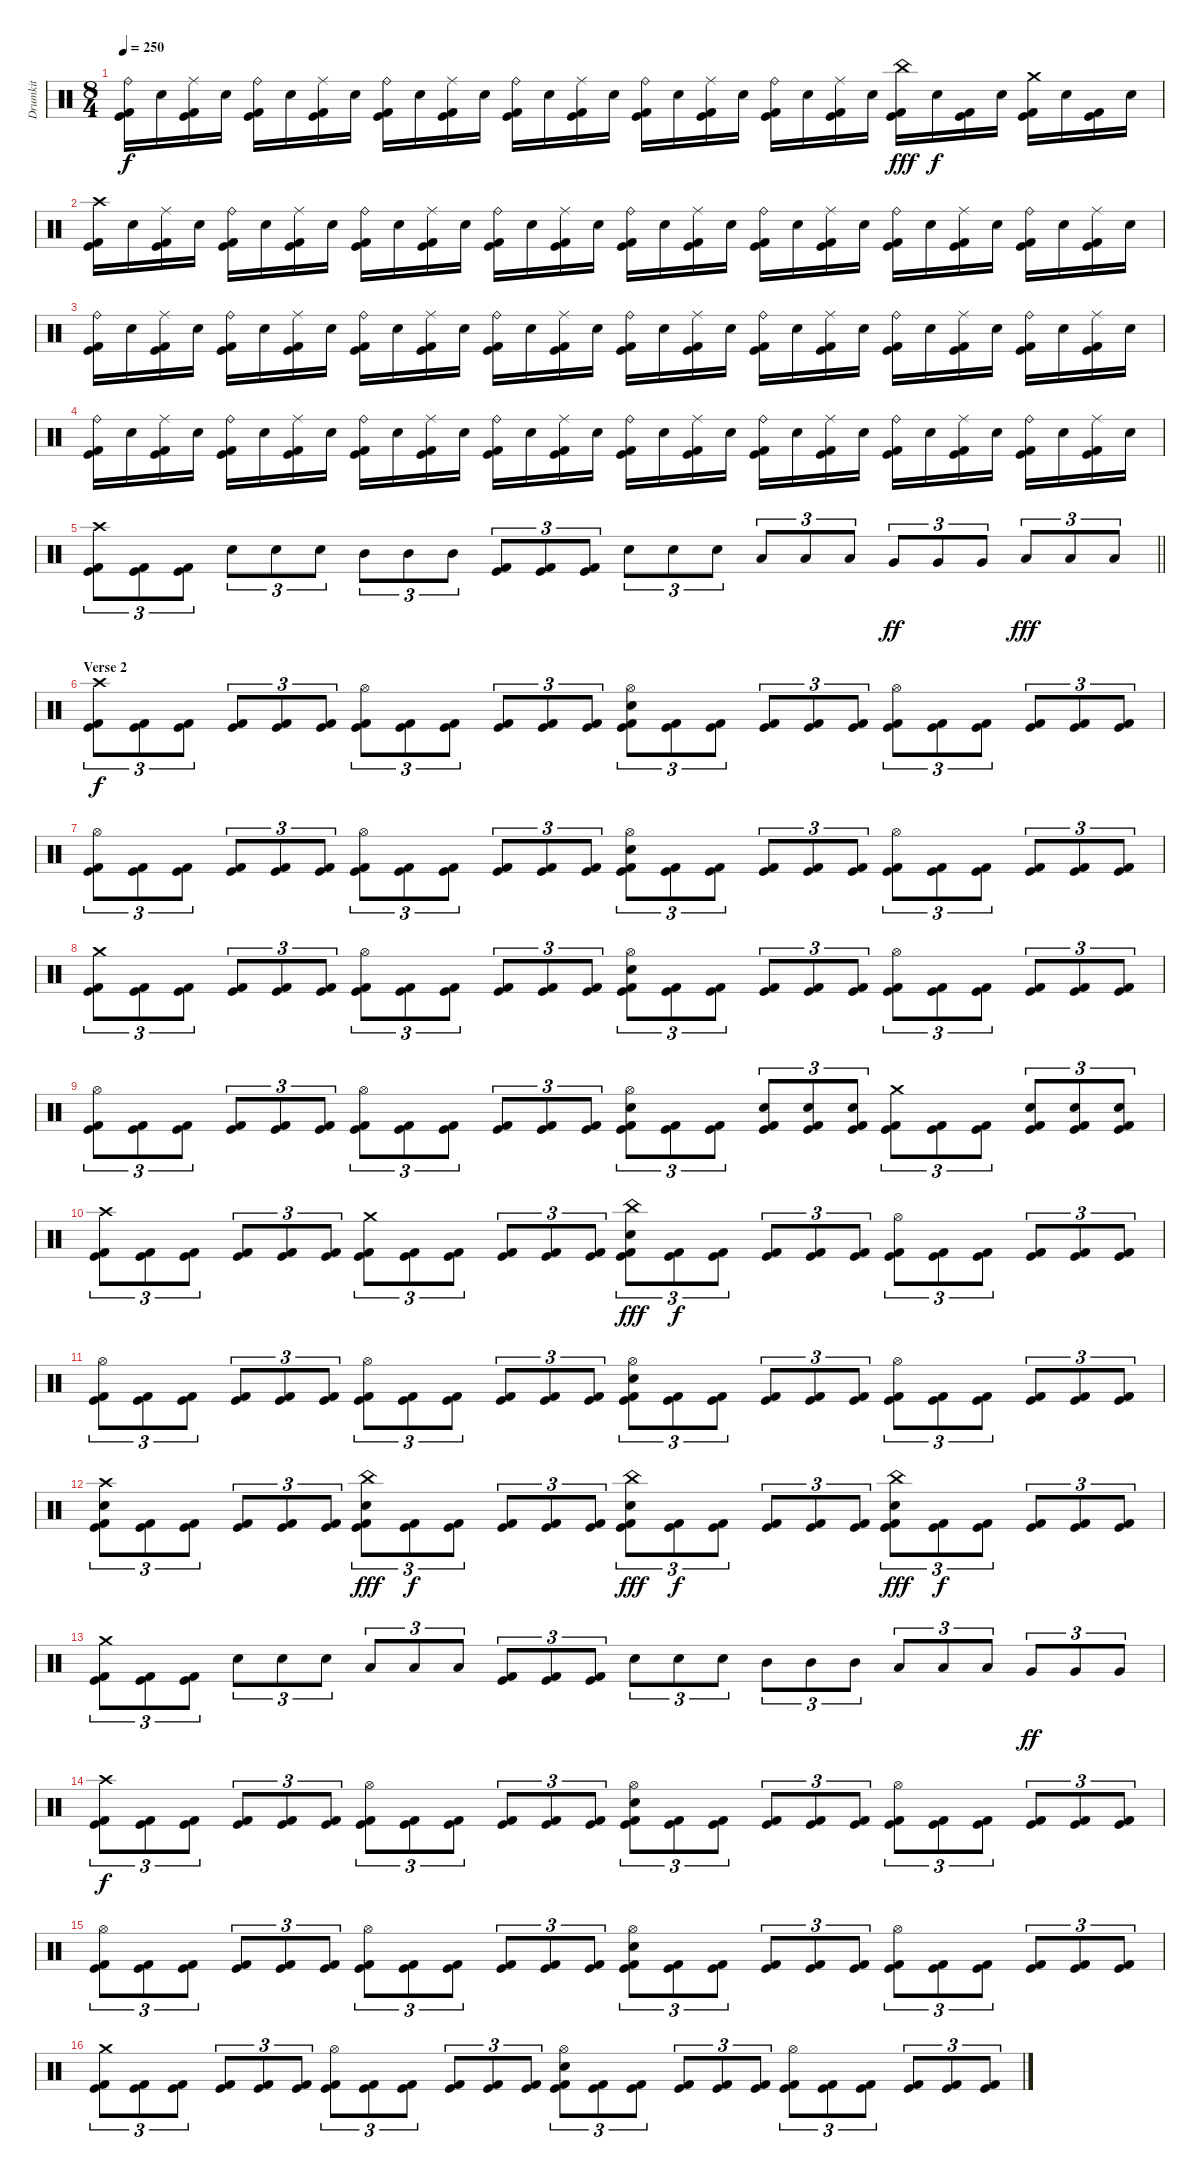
\track ("Drumkit" "Drumkit") {instrument percussion}
\staff {score}
\articulation defaults
\ts (8 4)
\tempo 250
\clef neutral
\ks c
("Ride (bell)" "Kick (hit)" "Kick (hit) 2").16{dy f} "Electric Snare (hit)".16 ("Ride (middle)" "Kick (hit)" "Kick (hit) 2").16 "Electric Snare (hit)".16 ("Ride (bell)" "Kick (hit)" "Kick (hit) 2").16 "Electric Snare (hit)".16 ("Ride (middle)" "Kick (hit)" "Kick (hit) 2").16 "Electric Snare (hit)".16 ("Ride (bell)" "Kick (hit)" "Kick (hit) 2").16 "Electric Snare (hit)".16 ("Ride (middle)" "Kick (hit)" "Kick (hit) 2").16 "Electric Snare (hit)".16 ("Ride (bell)" "Kick (hit)" "Kick (hit) 2").16 "Electric Snare (hit)".16 ("Ride (middle)" "Kick (hit)" "Kick (hit) 2").16 "Electric Snare (hit)".16 ("Ride (bell)" "Kick (hit)" "Kick (hit) 2").16 "Electric Snare (hit)".16 ("Ride (middle)" "Kick (hit)" "Kick (hit) 2").16 "Electric Snare (hit)".16 ("Ride (bell)" "Kick (hit)" "Kick (hit) 2").16 "Electric Snare (hit)".16 ("Ride (middle)" "Kick (hit)" "Kick (hit) 2").16 "Electric Snare (hit)".16 ("China (hit)" "Kick (hit)" "Kick (hit) 2").16{dy fff} "Electric Snare (hit)".16{dy f} ("Kick (hit)" "Kick (hit) 2").16 "Electric Snare (hit)".16 ("Crash medium (hit)" "Kick (hit)" "Kick (hit) 2").16 "Electric Snare (hit)".16 ("Kick (hit)" "Kick (hit) 2").16 "Electric Snare (hit)".16 |
("Crash high (hit)" "Kick (hit)" "Kick (hit) 2").16 "Electric Snare (hit)".16 ("Ride (middle)" "Kick (hit)" "Kick (hit) 2").16 "Electric Snare (hit)".16 ("Ride (bell)" "Kick (hit)" "Kick (hit) 2").16 "Electric Snare (hit)".16 ("Ride (middle)" "Kick (hit)" "Kick (hit) 2").16 "Electric Snare (hit)".16 ("Ride (bell)" "Kick (hit)" "Kick (hit) 2").16 "Electric Snare (hit)".16 ("Ride (middle)" "Kick (hit)" "Kick (hit) 2").16 "Electric Snare (hit)".16 ("Ride (bell)" "Kick (hit)" "Kick (hit) 2").16 "Electric Snare (hit)".16 ("Ride (middle)" "Kick (hit)" "Kick (hit) 2").16 "Electric Snare (hit)".16 ("Ride (bell)" "Kick (hit)" "Kick (hit) 2").16 "Electric Snare (hit)".16 ("Ride (middle)" "Kick (hit)" "Kick (hit) 2").16 "Electric Snare (hit)".16 ("Ride (bell)" "Kick (hit)" "Kick (hit) 2").16 "Electric Snare (hit)".16 ("Ride (middle)" "Kick (hit)" "Kick (hit) 2").16 "Electric Snare (hit)".16 ("Ride (bell)" "Kick (hit)" "Kick (hit) 2").16 "Electric Snare (hit)".16 ("Ride (middle)" "Kick (hit)" "Kick (hit) 2").16 "Electric Snare (hit)".16 ("Ride (bell)" "Kick (hit)" "Kick (hit) 2").16 "Electric Snare (hit)".16 ("Ride (middle)" "Kick (hit)" "Kick (hit) 2").16 "Electric Snare (hit)".16 |
("Ride (bell)" "Kick (hit)" "Kick (hit) 2").16 "Electric Snare (hit)".16 ("Ride (middle)" "Kick (hit)" "Kick (hit) 2").16 "Electric Snare (hit)".16 ("Ride (bell)" "Kick (hit)" "Kick (hit) 2").16 "Electric Snare (hit)".16 ("Ride (middle)" "Kick (hit)" "Kick (hit) 2").16 "Electric Snare (hit)".16 ("Ride (bell)" "Kick (hit)" "Kick (hit) 2").16 "Electric Snare (hit)".16 ("Ride (middle)" "Kick (hit)" "Kick (hit) 2").16 "Electric Snare (hit)".16 ("Ride (bell)" "Kick (hit)" "Kick (hit) 2").16 "Electric Snare (hit)".16 ("Ride (middle)" "Kick (hit)" "Kick (hit) 2").16 "Electric Snare (hit)".16 ("Ride (bell)" "Kick (hit)" "Kick (hit) 2").16 "Electric Snare (hit)".16 ("Ride (middle)" "Kick (hit)" "Kick (hit) 2").16 "Electric Snare (hit)".16 ("Ride (bell)" "Kick (hit)" "Kick (hit) 2").16 "Electric Snare (hit)".16 ("Ride (middle)" "Kick (hit)" "Kick (hit) 2").16 "Electric Snare (hit)".16 ("Ride (bell)" "Kick (hit)" "Kick (hit) 2").16 "Electric Snare (hit)".16 ("Ride (middle)" "Kick (hit)" "Kick (hit) 2").16 "Electric Snare (hit)".16 ("Ride (bell)" "Kick (hit)" "Kick (hit) 2").16 "Electric Snare (hit)".16 ("Ride (middle)" "Kick (hit)" "Kick (hit) 2").16 "Electric Snare (hit)".16 |
("Ride (bell)" "Kick (hit)" "Kick (hit) 2").16 "Electric Snare (hit)".16 ("Ride (middle)" "Kick (hit)" "Kick (hit) 2").16 "Electric Snare (hit)".16 ("Ride (bell)" "Kick (hit)" "Kick (hit) 2").16 "Electric Snare (hit)".16 ("Ride (middle)" "Kick (hit)" "Kick (hit) 2").16 "Electric Snare (hit)".16 ("Ride (bell)" "Kick (hit)" "Kick (hit) 2").16 "Electric Snare (hit)".16 ("Ride (middle)" "Kick (hit)" "Kick (hit) 2").16 "Electric Snare (hit)".16 ("Ride (bell)" "Kick (hit)" "Kick (hit) 2").16 "Electric Snare (hit)".16 ("Ride (middle)" "Kick (hit)" "Kick (hit) 2").16 "Electric Snare (hit)".16 ("Ride (bell)" "Kick (hit)" "Kick (hit) 2").16 "Electric Snare (hit)".16 ("Ride (middle)" "Kick (hit)" "Kick (hit) 2").16 "Electric Snare (hit)".16 ("Ride (bell)" "Kick (hit)" "Kick (hit) 2").16 "Electric Snare (hit)".16 ("Ride (middle)" "Kick (hit)" "Kick (hit) 2").16 "Electric Snare (hit)".16 ("Ride (bell)" "Kick (hit)" "Kick (hit) 2").16 "Electric Snare (hit)".16 ("Ride (middle)" "Kick (hit)" "Kick (hit) 2").16 "Electric Snare (hit)".16 ("Ride (bell)" "Kick (hit)" "Kick (hit) 2").16 "Electric Snare (hit)".16 ("Ride (middle)" "Kick (hit)" "Kick (hit) 2").16 "Electric Snare (hit)".16 |
\barLineRight lightlight
("Crash high (hit)" "Kick (hit)" "Kick (hit) 2").8{tu (3 2)} ("Kick (hit)" "Kick (hit) 2").8{tu (3 2)} ("Kick (hit)" "Kick (hit) 2").8{tu (3 2)} "Electric Snare (hit)".8{tu (3 2)} "Electric Snare (hit)".8{tu (3 2)} "Electric Snare (hit)".8{tu (3 2)} "Mid Tom (hit)".8{tu (3 2)} "Mid Tom (hit)".8{tu (3 2)} "Mid Tom (hit)".8{tu (3 2)} ("Kick (hit)" "Kick (hit) 2").8{tu (3 2)} ("Kick (hit)" "Kick (hit) 2").8{tu (3 2)} ("Kick (hit)" "Kick (hit) 2").8{tu (3 2)} "Electric Snare (hit)".8{tu (3 2)} "Electric Snare (hit)".8{tu (3 2)} "Electric Snare (hit)".8{tu (3 2)} "Low Tom (hit)".8{tu (3 2)} "Low Tom (hit)".8{tu (3 2)} "Low Tom (hit)".8{tu (3 2)} "Very Low Tom (hit)".8{tu (3 2) dy ff} "Very Low Tom (hit)".8{tu (3 2)} "Very Low Tom (hit)".8{tu (3 2)} "Low Floor Tom (hit)".8{tu (3 2) dy fff} "Low Floor Tom (hit)".8{tu (3 2)} "Low Floor Tom (hit)".8{tu (3 2)} |
\section ("" "Verse 2")
("Crash high (hit)" "Kick (hit)" "Kick (hit) 2").8{tu (3 2) dy f} ("Kick (hit)" "Kick (hit) 2").8{tu (3 2)} ("Kick (hit)" "Kick (hit) 2").8{tu (3 2)} ("Kick (hit)" "Kick (hit) 2").8{tu (3 2)} ("Kick (hit)" "Kick (hit) 2").8{tu (3 2)} ("Kick (hit)" "Kick (hit) 2").8{tu (3 2)} ("Hi-Hat (open)" "Kick (hit)" "Kick (hit) 2").8{tu (3 2)} ("Kick (hit)" "Kick (hit) 2").8{tu (3 2)} ("Kick (hit)" "Kick (hit) 2").8{tu (3 2)} ("Kick (hit)" "Kick (hit) 2").8{tu (3 2)} ("Kick (hit)" "Kick (hit) 2").8{tu (3 2)} ("Kick (hit)" "Kick (hit) 2").8{tu (3 2)} ("Hi-Hat (open)" "Electric Snare (hit)" "Kick (hit)" "Kick (hit) 2").8{tu (3 2)} ("Kick (hit)" "Kick (hit) 2").8{tu (3 2)} ("Kick (hit)" "Kick (hit) 2").8{tu (3 2)} ("Kick (hit)" "Kick (hit) 2").8{tu (3 2)} ("Kick (hit)" "Kick (hit) 2").8{tu (3 2)} ("Kick (hit)" "Kick (hit) 2").8{tu (3 2)} ("Hi-Hat (open)" "Kick (hit)" "Kick (hit) 2").8{tu (3 2)} ("Kick (hit)" "Kick (hit) 2").8{tu (3 2)} ("Kick (hit)" "Kick (hit) 2").8{tu (3 2)} ("Kick (hit)" "Kick (hit) 2").8{tu (3 2)} ("Kick (hit)" "Kick (hit) 2").8{tu (3 2)} ("Kick (hit)" "Kick (hit) 2").8{tu (3 2)} |
("Hi-Hat (open)" "Kick (hit)" "Kick (hit) 2").8{tu (3 2)} ("Kick (hit)" "Kick (hit) 2").8{tu (3 2)} ("Kick (hit)" "Kick (hit) 2").8{tu (3 2)} ("Kick (hit)" "Kick (hit) 2").8{tu (3 2)} ("Kick (hit)" "Kick (hit) 2").8{tu (3 2)} ("Kick (hit)" "Kick (hit) 2").8{tu (3 2)} ("Hi-Hat (open)" "Kick (hit)" "Kick (hit) 2").8{tu (3 2)} ("Kick (hit)" "Kick (hit) 2").8{tu (3 2)} ("Kick (hit)" "Kick (hit) 2").8{tu (3 2)} ("Kick (hit)" "Kick (hit) 2").8{tu (3 2)} ("Kick (hit)" "Kick (hit) 2").8{tu (3 2)} ("Kick (hit)" "Kick (hit) 2").8{tu (3 2)} ("Hi-Hat (open)" "Electric Snare (hit)" "Kick (hit)" "Kick (hit) 2").8{tu (3 2)} ("Kick (hit)" "Kick (hit) 2").8{tu (3 2)} ("Kick (hit)" "Kick (hit) 2").8{tu (3 2)} ("Kick (hit)" "Kick (hit) 2").8{tu (3 2)} ("Kick (hit)" "Kick (hit) 2").8{tu (3 2)} ("Kick (hit)" "Kick (hit) 2").8{tu (3 2)} ("Hi-Hat (open)" "Kick (hit)" "Kick (hit) 2").8{tu (3 2)} ("Kick (hit)" "Kick (hit) 2").8{tu (3 2)} ("Kick (hit)" "Kick (hit) 2").8{tu (3 2)} ("Kick (hit)" "Kick (hit) 2").8{tu (3 2)} ("Kick (hit)" "Kick (hit) 2").8{tu (3 2)} ("Kick (hit)" "Kick (hit) 2").8{tu (3 2)} |
("Crash medium (hit)" "Kick (hit)" "Kick (hit) 2").8{tu (3 2)} ("Kick (hit)" "Kick (hit) 2").8{tu (3 2)} ("Kick (hit)" "Kick (hit) 2").8{tu (3 2)} ("Kick (hit)" "Kick (hit) 2").8{tu (3 2)} ("Kick (hit)" "Kick (hit) 2").8{tu (3 2)} ("Kick (hit)" "Kick (hit) 2").8{tu (3 2)} ("Hi-Hat (open)" "Kick (hit)" "Kick (hit) 2").8{tu (3 2)} ("Kick (hit)" "Kick (hit) 2").8{tu (3 2)} ("Kick (hit)" "Kick (hit) 2").8{tu (3 2)} ("Kick (hit)" "Kick (hit) 2").8{tu (3 2)} ("Kick (hit)" "Kick (hit) 2").8{tu (3 2)} ("Kick (hit)" "Kick (hit) 2").8{tu (3 2)} ("Hi-Hat (open)" "Electric Snare (hit)" "Kick (hit)" "Kick (hit) 2").8{tu (3 2)} ("Kick (hit)" "Kick (hit) 2").8{tu (3 2)} ("Kick (hit)" "Kick (hit) 2").8{tu (3 2)} ("Kick (hit)" "Kick (hit) 2").8{tu (3 2)} ("Kick (hit)" "Kick (hit) 2").8{tu (3 2)} ("Kick (hit)" "Kick (hit) 2").8{tu (3 2)} ("Hi-Hat (open)" "Kick (hit)" "Kick (hit) 2").8{tu (3 2)} ("Kick (hit)" "Kick (hit) 2").8{tu (3 2)} ("Kick (hit)" "Kick (hit) 2").8{tu (3 2)} ("Kick (hit)" "Kick (hit) 2").8{tu (3 2)} ("Kick (hit)" "Kick (hit) 2").8{tu (3 2)} ("Kick (hit)" "Kick (hit) 2").8{tu (3 2)} |
("Hi-Hat (open)" "Kick (hit)" "Kick (hit) 2").8{tu (3 2)} ("Kick (hit)" "Kick (hit) 2").8{tu (3 2)} ("Kick (hit)" "Kick (hit) 2").8{tu (3 2)} ("Kick (hit)" "Kick (hit) 2").8{tu (3 2)} ("Kick (hit)" "Kick (hit) 2").8{tu (3 2)} ("Kick (hit)" "Kick (hit) 2").8{tu (3 2)} ("Hi-Hat (open)" "Kick (hit)" "Kick (hit) 2").8{tu (3 2)} ("Kick (hit)" "Kick (hit) 2").8{tu (3 2)} ("Kick (hit)" "Kick (hit) 2").8{tu (3 2)} ("Kick (hit)" "Kick (hit) 2").8{tu (3 2)} ("Kick (hit)" "Kick (hit) 2").8{tu (3 2)} ("Kick (hit)" "Kick (hit) 2").8{tu (3 2)} ("Hi-Hat (open)" "Electric Snare (hit)" "Kick (hit)" "Kick (hit) 2").8{tu (3 2)} ("Kick (hit)" "Kick (hit) 2").8{tu (3 2)} ("Kick (hit)" "Kick (hit) 2").8{tu (3 2)} ("Electric Snare (hit)" "Kick (hit)" "Kick (hit) 2").8{tu (3 2)} ("Electric Snare (hit)" "Kick (hit)" "Kick (hit) 2").8{tu (3 2)} ("Electric Snare (hit)" "Kick (hit)" "Kick (hit) 2").8{tu (3 2)} ("Crash medium (hit)" "Kick (hit)" "Kick (hit) 2").8{tu (3 2)} ("Kick (hit)" "Kick (hit) 2").8{tu (3 2)} ("Kick (hit)" "Kick (hit) 2").8{tu (3 2)} ("Electric Snare (hit)" "Kick (hit)" "Kick (hit) 2").8{tu (3 2)} ("Electric Snare (hit)" "Kick (hit)" "Kick (hit) 2").8{tu (3 2)} ("Electric Snare (hit)" "Kick (hit)" "Kick (hit) 2").8{tu (3 2)} |
("Crash high (hit)" "Kick (hit)" "Kick (hit) 2").8{tu (3 2)} ("Kick (hit)" "Kick (hit) 2").8{tu (3 2)} ("Kick (hit)" "Kick (hit) 2").8{tu (3 2)} ("Kick (hit)" "Kick (hit) 2").8{tu (3 2)} ("Kick (hit)" "Kick (hit) 2").8{tu (3 2)} ("Kick (hit)" "Kick (hit) 2").8{tu (3 2)} ("Crash medium (hit)" "Kick (hit)" "Kick (hit) 2").8{tu (3 2)} ("Kick (hit)" "Kick (hit) 2").8{tu (3 2)} ("Kick (hit)" "Kick (hit) 2").8{tu (3 2)} ("Kick (hit)" "Kick (hit) 2").8{tu (3 2)} ("Kick (hit)" "Kick (hit) 2").8{tu (3 2)} ("Kick (hit)" "Kick (hit) 2").8{tu (3 2)} ("China (hit)" "Electric Snare (hit)" "Kick (hit)" "Kick (hit) 2").8{tu (3 2) dy fff} ("Kick (hit)" "Kick (hit) 2").8{tu (3 2) dy f} ("Kick (hit)" "Kick (hit) 2").8{tu (3 2)} ("Kick (hit)" "Kick (hit) 2").8{tu (3 2)} ("Kick (hit)" "Kick (hit) 2").8{tu (3 2)} ("Kick (hit)" "Kick (hit) 2").8{tu (3 2)} ("Hi-Hat (open)" "Kick (hit)" "Kick (hit) 2").8{tu (3 2)} ("Kick (hit)" "Kick (hit) 2").8{tu (3 2)} ("Kick (hit)" "Kick (hit) 2").8{tu (3 2)} ("Kick (hit)" "Kick (hit) 2").8{tu (3 2)} ("Kick (hit)" "Kick (hit) 2").8{tu (3 2)} ("Kick (hit)" "Kick (hit) 2").8{tu (3 2)} |
("Hi-Hat (open)" "Kick (hit)" "Kick (hit) 2").8{tu (3 2)} ("Kick (hit)" "Kick (hit) 2").8{tu (3 2)} ("Kick (hit)" "Kick (hit) 2").8{tu (3 2)} ("Kick (hit)" "Kick (hit) 2").8{tu (3 2)} ("Kick (hit)" "Kick (hit) 2").8{tu (3 2)} ("Kick (hit)" "Kick (hit) 2").8{tu (3 2)} ("Hi-Hat (open)" "Kick (hit)" "Kick (hit) 2").8{tu (3 2)} ("Kick (hit)" "Kick (hit) 2").8{tu (3 2)} ("Kick (hit)" "Kick (hit) 2").8{tu (3 2)} ("Kick (hit)" "Kick (hit) 2").8{tu (3 2)} ("Kick (hit)" "Kick (hit) 2").8{tu (3 2)} ("Kick (hit)" "Kick (hit) 2").8{tu (3 2)} ("Hi-Hat (open)" "Electric Snare (hit)" "Kick (hit)" "Kick (hit) 2").8{tu (3 2)} ("Kick (hit)" "Kick (hit) 2").8{tu (3 2)} ("Kick (hit)" "Kick (hit) 2").8{tu (3 2)} ("Kick (hit)" "Kick (hit) 2").8{tu (3 2)} ("Kick (hit)" "Kick (hit) 2").8{tu (3 2)} ("Kick (hit)" "Kick (hit) 2").8{tu (3 2)} ("Hi-Hat (open)" "Kick (hit)" "Kick (hit) 2").8{tu (3 2)} ("Kick (hit)" "Kick (hit) 2").8{tu (3 2)} ("Kick (hit)" "Kick (hit) 2").8{tu (3 2)} ("Kick (hit)" "Kick (hit) 2").8{tu (3 2)} ("Kick (hit)" "Kick (hit) 2").8{tu (3 2)} ("Kick (hit)" "Kick (hit) 2").8{tu (3 2)} |
("Crash high (hit)" "Electric Snare (hit)" "Kick (hit)" "Kick (hit) 2").8{tu (3 2)} ("Kick (hit)" "Kick (hit) 2").8{tu (3 2)} ("Kick (hit)" "Kick (hit) 2").8{tu (3 2)} ("Kick (hit)" "Kick (hit) 2").8{tu (3 2)} ("Kick (hit)" "Kick (hit) 2").8{tu (3 2)} ("Kick (hit)" "Kick (hit) 2").8{tu (3 2)} ("China (hit)" "Electric Snare (hit)" "Kick (hit)" "Kick (hit) 2").8{tu (3 2) dy fff} ("Kick (hit)" "Kick (hit) 2").8{tu (3 2) dy f} ("Kick (hit)" "Kick (hit) 2").8{tu (3 2)} ("Kick (hit)" "Kick (hit) 2").8{tu (3 2)} ("Kick (hit)" "Kick (hit) 2").8{tu (3 2)} ("Kick (hit)" "Kick (hit) 2").8{tu (3 2)} ("China (hit)" "Electric Snare (hit)" "Kick (hit)" "Kick (hit) 2").8{tu (3 2) dy fff} ("Kick (hit)" "Kick (hit) 2").8{tu (3 2) dy f} ("Kick (hit)" "Kick (hit) 2").8{tu (3 2)} ("Kick (hit)" "Kick (hit) 2").8{tu (3 2)} ("Kick (hit)" "Kick (hit) 2").8{tu (3 2)} ("Kick (hit)" "Kick (hit) 2").8{tu (3 2)} ("China (hit)" "Electric Snare (hit)" "Kick (hit)" "Kick (hit) 2").8{tu (3 2) dy fff} ("Kick (hit)" "Kick (hit) 2").8{tu (3 2) dy f} ("Kick (hit)" "Kick (hit) 2").8{tu (3 2)} ("Kick (hit)" "Kick (hit) 2").8{tu (3 2)} ("Kick (hit)" "Kick (hit) 2").8{tu (3 2)} ("Kick (hit)" "Kick (hit) 2").8{tu (3 2)} |
("Crash medium (hit)" "Kick (hit)" "Kick (hit) 2").8{tu (3 2)} ("Kick (hit)" "Kick (hit) 2").8{tu (3 2)} ("Kick (hit)" "Kick (hit) 2").8{tu (3 2)} "Electric Snare (hit)".8{tu (3 2)} "Electric Snare (hit)".8{tu (3 2)} "Electric Snare (hit)".8{tu (3 2)} "Low Tom (hit)".8{tu (3 2)} "Low Tom (hit)".8{tu (3 2)} "Low Tom (hit)".8{tu (3 2)} ("Kick (hit)" "Kick (hit) 2").8{tu (3 2)} ("Kick (hit)" "Kick (hit) 2").8{tu (3 2)} ("Kick (hit)" "Kick (hit) 2").8{tu (3 2)} "Electric Snare (hit)".8{tu (3 2)} "Electric Snare (hit)".8{tu (3 2)} "Electric Snare (hit)".8{tu (3 2)} "Mid Tom (hit)".8{tu (3 2)} "Mid Tom (hit)".8{tu (3 2)} "Mid Tom (hit)".8{tu (3 2)} "Low Tom (hit)".8{tu (3 2)} "Low Tom (hit)".8{tu (3 2)} "Low Tom (hit)".8{tu (3 2)} "Very Low Tom (hit)".8{tu (3 2) dy ff} "Very Low Tom (hit)".8{tu (3 2)} "Very Low Tom (hit)".8{tu (3 2)} |
("Crash high (hit)" "Kick (hit)" "Kick (hit) 2").8{tu (3 2) dy f} ("Kick (hit)" "Kick (hit) 2").8{tu (3 2)} ("Kick (hit)" "Kick (hit) 2").8{tu (3 2)} ("Kick (hit)" "Kick (hit) 2").8{tu (3 2)} ("Kick (hit)" "Kick (hit) 2").8{tu (3 2)} ("Kick (hit)" "Kick (hit) 2").8{tu (3 2)} ("Hi-Hat (open)" "Kick (hit)" "Kick (hit) 2").8{tu (3 2)} ("Kick (hit)" "Kick (hit) 2").8{tu (3 2)} ("Kick (hit)" "Kick (hit) 2").8{tu (3 2)} ("Kick (hit)" "Kick (hit) 2").8{tu (3 2)} ("Kick (hit)" "Kick (hit) 2").8{tu (3 2)} ("Kick (hit)" "Kick (hit) 2").8{tu (3 2)} ("Hi-Hat (open)" "Electric Snare (hit)" "Kick (hit)" "Kick (hit) 2").8{tu (3 2)} ("Kick (hit)" "Kick (hit) 2").8{tu (3 2)} ("Kick (hit)" "Kick (hit) 2").8{tu (3 2)} ("Kick (hit)" "Kick (hit) 2").8{tu (3 2)} ("Kick (hit)" "Kick (hit) 2").8{tu (3 2)} ("Kick (hit)" "Kick (hit) 2").8{tu (3 2)} ("Hi-Hat (open)" "Kick (hit)" "Kick (hit) 2").8{tu (3 2)} ("Kick (hit)" "Kick (hit) 2").8{tu (3 2)} ("Kick (hit)" "Kick (hit) 2").8{tu (3 2)} ("Kick (hit)" "Kick (hit) 2").8{tu (3 2)} ("Kick (hit)" "Kick (hit) 2").8{tu (3 2)} ("Kick (hit)" "Kick (hit) 2").8{tu (3 2)} |
("Hi-Hat (open)" "Kick (hit)" "Kick (hit) 2").8{tu (3 2)} ("Kick (hit)" "Kick (hit) 2").8{tu (3 2)} ("Kick (hit)" "Kick (hit) 2").8{tu (3 2)} ("Kick (hit)" "Kick (hit) 2").8{tu (3 2)} ("Kick (hit)" "Kick (hit) 2").8{tu (3 2)} ("Kick (hit)" "Kick (hit) 2").8{tu (3 2)} ("Hi-Hat (open)" "Kick (hit)" "Kick (hit) 2").8{tu (3 2)} ("Kick (hit)" "Kick (hit) 2").8{tu (3 2)} ("Kick (hit)" "Kick (hit) 2").8{tu (3 2)} ("Kick (hit)" "Kick (hit) 2").8{tu (3 2)} ("Kick (hit)" "Kick (hit) 2").8{tu (3 2)} ("Kick (hit)" "Kick (hit) 2").8{tu (3 2)} ("Hi-Hat (open)" "Electric Snare (hit)" "Kick (hit)" "Kick (hit) 2").8{tu (3 2)} ("Kick (hit)" "Kick (hit) 2").8{tu (3 2)} ("Kick (hit)" "Kick (hit) 2").8{tu (3 2)} ("Kick (hit)" "Kick (hit) 2").8{tu (3 2)} ("Kick (hit)" "Kick (hit) 2").8{tu (3 2)} ("Kick (hit)" "Kick (hit) 2").8{tu (3 2)} ("Hi-Hat (open)" "Kick (hit)" "Kick (hit) 2").8{tu (3 2)} ("Kick (hit)" "Kick (hit) 2").8{tu (3 2)} ("Kick (hit)" "Kick (hit) 2").8{tu (3 2)} ("Kick (hit)" "Kick (hit) 2").8{tu (3 2)} ("Kick (hit)" "Kick (hit) 2").8{tu (3 2)} ("Kick (hit)" "Kick (hit) 2").8{tu (3 2)} |
("Crash medium (hit)" "Kick (hit)" "Kick (hit) 2").8{tu (3 2)} ("Kick (hit)" "Kick (hit) 2").8{tu (3 2)} ("Kick (hit)" "Kick (hit) 2").8{tu (3 2)} ("Kick (hit)" "Kick (hit) 2").8{tu (3 2)} ("Kick (hit)" "Kick (hit) 2").8{tu (3 2)} ("Kick (hit)" "Kick (hit) 2").8{tu (3 2)} ("Hi-Hat (open)" "Kick (hit)" "Kick (hit) 2").8{tu (3 2)} ("Kick (hit)" "Kick (hit) 2").8{tu (3 2)} ("Kick (hit)" "Kick (hit) 2").8{tu (3 2)} ("Kick (hit)" "Kick (hit) 2").8{tu (3 2)} ("Kick (hit)" "Kick (hit) 2").8{tu (3 2)} ("Kick (hit)" "Kick (hit) 2").8{tu (3 2)} ("Hi-Hat (open)" "Electric Snare (hit)" "Kick (hit)" "Kick (hit) 2").8{tu (3 2)} ("Kick (hit)" "Kick (hit) 2").8{tu (3 2)} ("Kick (hit)" "Kick (hit) 2").8{tu (3 2)} ("Kick (hit)" "Kick (hit) 2").8{tu (3 2)} ("Kick (hit)" "Kick (hit) 2").8{tu (3 2)} ("Kick (hit)" "Kick (hit) 2").8{tu (3 2)} ("Hi-Hat (open)" "Kick (hit)" "Kick (hit) 2").8{tu (3 2)} ("Kick (hit)" "Kick (hit) 2").8{tu (3 2)} ("Kick (hit)" "Kick (hit) 2").8{tu (3 2)} ("Kick (hit)" "Kick (hit) 2").8{tu (3 2)} ("Kick (hit)" "Kick (hit) 2").8{tu (3 2)} ("Kick (hit)" "Kick (hit) 2").8{tu (3 2)}
